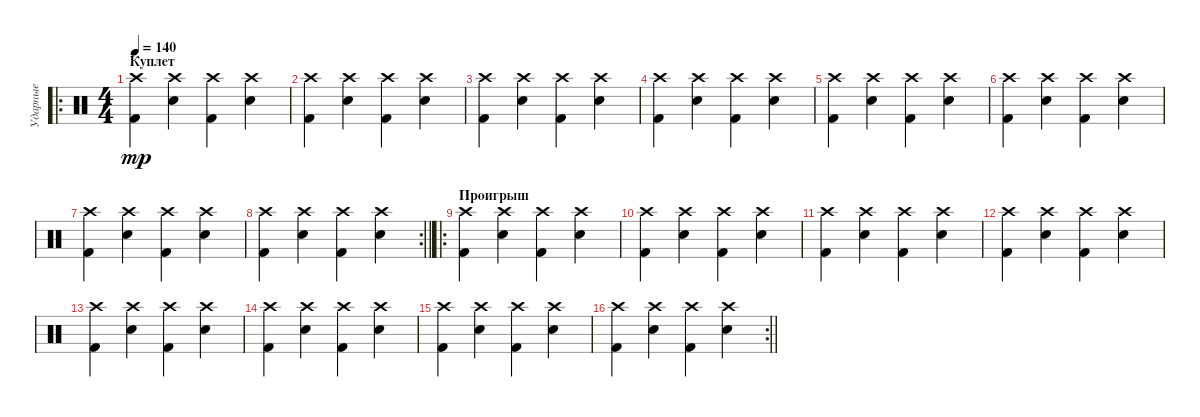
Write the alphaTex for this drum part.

\track ("Ударные" "Ударные") {instrument percussion}
\staff {score}
\articulation defaults
\ro
\ts (4 4)
\section ("" "Куплет")
\tempo 140
\clef neutral
\ks c
("Crash high (hit)" "Kick (hit) 2").4{dy mp} ("Crash high (hit)" "Snare (hit) 2").4 ("Crash high (hit)" "Kick (hit) 2").4 ("Crash high (hit)" "Snare (hit) 2").4 |
("Crash high (hit)" "Kick (hit) 2").4 ("Crash high (hit)" "Snare (hit) 2").4 ("Crash high (hit)" "Kick (hit) 2").4 ("Crash high (hit)" "Snare (hit) 2").4 |
("Crash high (hit)" "Kick (hit) 2").4 ("Crash high (hit)" "Snare (hit) 2").4 ("Crash high (hit)" "Kick (hit) 2").4 ("Crash high (hit)" "Snare (hit) 2").4 |
("Crash high (hit)" "Kick (hit) 2").4 ("Crash high (hit)" "Snare (hit) 2").4 ("Crash high (hit)" "Kick (hit) 2").4 ("Crash high (hit)" "Snare (hit) 2").4 |
("Crash high (hit)" "Kick (hit) 2").4 ("Crash high (hit)" "Snare (hit) 2").4 ("Crash high (hit)" "Kick (hit) 2").4 ("Crash high (hit)" "Snare (hit) 2").4 |
("Crash high (hit)" "Kick (hit) 2").4 ("Crash high (hit)" "Snare (hit) 2").4 ("Crash high (hit)" "Kick (hit) 2").4 ("Crash high (hit)" "Snare (hit) 2").4 |
("Crash high (hit)" "Kick (hit) 2").4 ("Crash high (hit)" "Snare (hit) 2").4 ("Crash high (hit)" "Kick (hit) 2").4 ("Crash high (hit)" "Snare (hit) 2").4 |
\rc 2
\barLineRight lightlight
("Crash high (hit)" "Kick (hit) 2").4 ("Crash high (hit)" "Snare (hit) 2").4 ("Crash high (hit)" "Kick (hit) 2").4 ("Crash high (hit)" "Snare (hit) 2").4 |
\ro
\section ("" "Проигрыш")
("Crash high (hit)" "Kick (hit) 2").4 ("Crash high (hit)" "Snare (hit) 2").4 ("Crash high (hit)" "Kick (hit) 2").4 ("Crash high (hit)" "Snare (hit) 2").4 |
("Crash high (hit)" "Kick (hit) 2").4 ("Crash high (hit)" "Snare (hit) 2").4 ("Crash high (hit)" "Kick (hit) 2").4 ("Crash high (hit)" "Snare (hit) 2").4 |
("Crash high (hit)" "Kick (hit) 2").4 ("Crash high (hit)" "Snare (hit) 2").4 ("Crash high (hit)" "Kick (hit) 2").4 ("Crash high (hit)" "Snare (hit) 2").4 |
("Crash high (hit)" "Kick (hit) 2").4 ("Crash high (hit)" "Snare (hit) 2").4 ("Crash high (hit)" "Kick (hit) 2").4 ("Crash high (hit)" "Snare (hit) 2").4 |
("Crash high (hit)" "Kick (hit) 2").4 ("Crash high (hit)" "Snare (hit) 2").4 ("Crash high (hit)" "Kick (hit) 2").4 ("Crash high (hit)" "Snare (hit) 2").4 |
("Crash high (hit)" "Kick (hit) 2").4 ("Crash high (hit)" "Snare (hit) 2").4 ("Crash high (hit)" "Kick (hit) 2").4 ("Crash high (hit)" "Snare (hit) 2").4 |
("Crash high (hit)" "Kick (hit) 2").4 ("Crash high (hit)" "Snare (hit) 2").4 ("Crash high (hit)" "Kick (hit) 2").4 ("Crash high (hit)" "Snare (hit) 2").4 |
\rc 2
\barLineRight lightlight
("Crash high (hit)" "Kick (hit) 2").4 ("Crash high (hit)" "Snare (hit) 2").4 ("Crash high (hit)" "Kick (hit) 2").4 ("Crash high (hit)" "Snare (hit) 2").4
